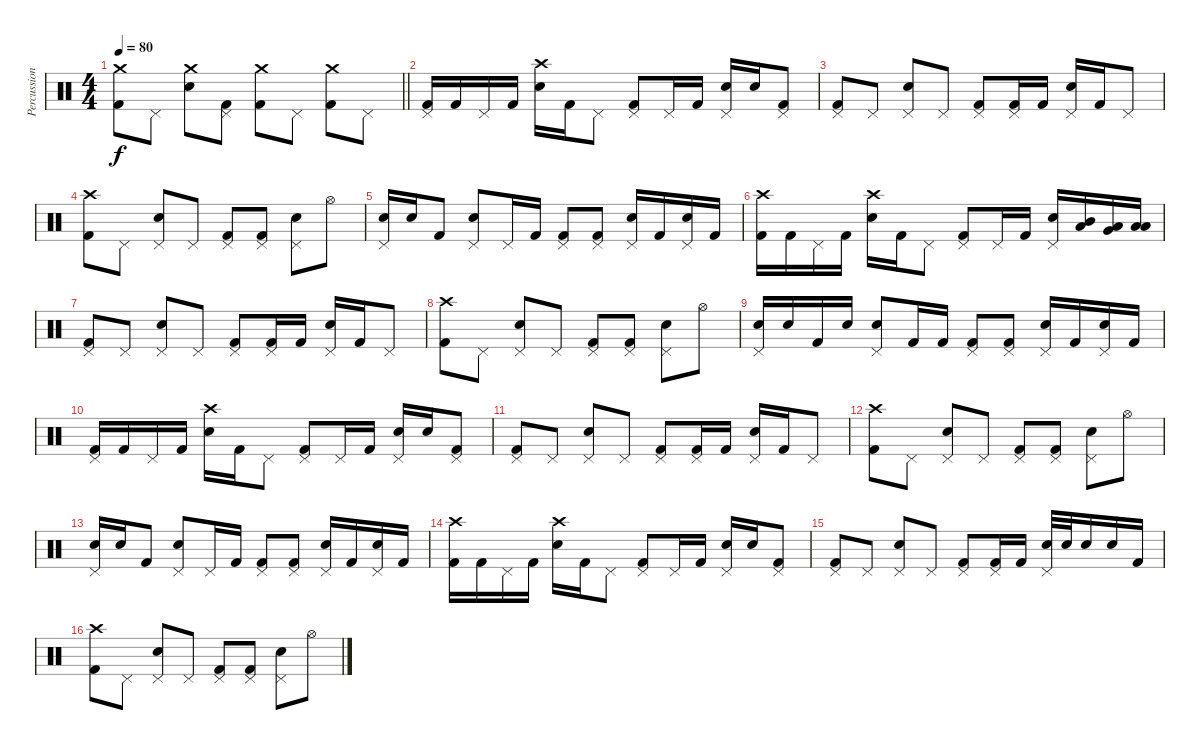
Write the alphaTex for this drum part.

\track ("Percussion" "Percussion") {instrument percussion}
\staff {score}
\articulation defaults
\ts (4 4)
\tempo 80
\clef neutral
\barLineRight lightlight
\ks c
("Crash medium (hit)" "Kick (hit) 2").8{dy f} "Pedal Hi-Hat (hit)".8 ("Crash medium (hit)" "Electric Snare (hit)").8 ("Pedal Hi-Hat (hit)" "Kick (hit) 2").8 ("Crash medium (hit)" "Kick (hit) 2").8 "Pedal Hi-Hat (hit)".8 ("Crash medium (hit)" "Kick (hit) 2").8 "Pedal Hi-Hat (hit)".8 |
("Pedal Hi-Hat (hit)" "Kick (hit) 2").16 "Kick (hit) 2".16 "Pedal Hi-Hat (hit)".16 "Kick (hit) 2".16 ("Crash high (hit)" "Electric Snare (hit)").16 "Kick (hit) 2".16 "Pedal Hi-Hat (hit)".8 ("Pedal Hi-Hat (hit)" "Kick (hit) 2").8 "Pedal Hi-Hat (hit)".16 "Kick (hit) 2".16 ("Pedal Hi-Hat (hit)" "Electric Snare (hit)").16 "Electric Snare (hit)".16 ("Pedal Hi-Hat (hit)" "Kick (hit) 2").8 |
("Pedal Hi-Hat (hit)" "Kick (hit) 2").8 "Pedal Hi-Hat (hit)".8 ("Pedal Hi-Hat (hit)" "Electric Snare (hit)").8 "Pedal Hi-Hat (hit)".8 ("Pedal Hi-Hat (hit)" "Kick (hit) 2").8 ("Pedal Hi-Hat (hit)" "Kick (hit) 2").16 "Kick (hit) 2".16 ("Pedal Hi-Hat (hit)" "Electric Snare (hit)").16 "Kick (hit) 2".16 "Pedal Hi-Hat (hit)".8 |
("Crash high (hit)" "Kick (hit) 2").8 "Pedal Hi-Hat (hit)".8 ("Pedal Hi-Hat (hit)" "Electric Snare (hit)").8 "Pedal Hi-Hat (hit)".8 ("Pedal Hi-Hat (hit)" "Kick (hit) 2").8 ("Pedal Hi-Hat (hit)" "Kick (hit) 2").8 ("Pedal Hi-Hat (hit)" "Electric Snare (hit)").8 "Hi-Hat (open)".8 |
("Pedal Hi-Hat (hit)" "Electric Snare (hit)").16 "Electric Snare (hit)".16 "Kick (hit) 2".8 ("Pedal Hi-Hat (hit)" "Electric Snare (hit)").8 "Pedal Hi-Hat (hit)".16 "Kick (hit) 2".16 ("Pedal Hi-Hat (hit)" "Kick (hit) 2").8 ("Pedal Hi-Hat (hit)" "Kick (hit) 2").8 ("Pedal Hi-Hat (hit)" "Electric Snare (hit)").16 "Kick (hit) 2".16 ("Pedal Hi-Hat (hit)" "Electric Snare (hit)").16 "Kick (hit) 2".16 |
("Crash high (hit)" "Kick (hit) 2").16 "Kick (hit) 2".16 "Pedal Hi-Hat (hit)".16 "Kick (hit) 2".16 ("Crash high (hit)" "Electric Snare (hit)").16 "Kick (hit) 2".16 "Pedal Hi-Hat (hit)".8 ("Pedal Hi-Hat (hit)" "Kick (hit) 2").8 "Pedal Hi-Hat (hit)".16 "Kick (hit) 2".16 ("Pedal Hi-Hat (hit)" "Electric Snare (hit)").16 ("Mid Tom (hit)" "Low Tom (hit)").16 ("Low Tom (hit)" "Very Low Tom (hit)").16 ("Low Tom (hit)" "Low Floor Tom (hit)").16 |
("Pedal Hi-Hat (hit)" "Kick (hit) 2").8 "Pedal Hi-Hat (hit)".8 ("Pedal Hi-Hat (hit)" "Electric Snare (hit)").8 "Pedal Hi-Hat (hit)".8 ("Pedal Hi-Hat (hit)" "Kick (hit) 2").8 ("Pedal Hi-Hat (hit)" "Kick (hit) 2").16 "Kick (hit) 2".16 ("Pedal Hi-Hat (hit)" "Electric Snare (hit)").16 "Kick (hit) 2".16 "Pedal Hi-Hat (hit)".8 |
("Crash high (hit)" "Kick (hit) 2").8 "Pedal Hi-Hat (hit)".8 ("Pedal Hi-Hat (hit)" "Electric Snare (hit)").8 "Pedal Hi-Hat (hit)".8 ("Pedal Hi-Hat (hit)" "Kick (hit) 2").8 ("Pedal Hi-Hat (hit)" "Kick (hit) 2").8 ("Pedal Hi-Hat (hit)" "Electric Snare (hit)").8 "Hi-Hat (open)".8 |
("Pedal Hi-Hat (hit)" "Electric Snare (hit)").16 "Electric Snare (hit)".16 "Kick (hit) 2".16 "Electric Snare (hit)".16 ("Pedal Hi-Hat (hit)" "Electric Snare (hit)").8 "Kick (hit) 2".16 "Kick (hit) 2".16 ("Pedal Hi-Hat (hit)" "Kick (hit) 2").8 ("Pedal Hi-Hat (hit)" "Kick (hit) 2").8 ("Pedal Hi-Hat (hit)" "Electric Snare (hit)").16 "Kick (hit) 2".16 ("Pedal Hi-Hat (hit)" "Electric Snare (hit)").16 "Kick (hit) 2".16 |
("Pedal Hi-Hat (hit)" "Kick (hit) 2").16 "Kick (hit) 2".16 "Pedal Hi-Hat (hit)".16 "Kick (hit) 2".16 ("Crash high (hit)" "Electric Snare (hit)").16 "Kick (hit) 2".16 "Pedal Hi-Hat (hit)".8 ("Pedal Hi-Hat (hit)" "Kick (hit) 2").8 "Pedal Hi-Hat (hit)".16 "Kick (hit) 2".16 ("Pedal Hi-Hat (hit)" "Electric Snare (hit)").16 "Electric Snare (hit)".16 ("Pedal Hi-Hat (hit)" "Kick (hit) 2").8 |
("Pedal Hi-Hat (hit)" "Kick (hit) 2").8 "Pedal Hi-Hat (hit)".8 ("Pedal Hi-Hat (hit)" "Electric Snare (hit)").8 "Pedal Hi-Hat (hit)".8 ("Pedal Hi-Hat (hit)" "Kick (hit) 2").8 ("Pedal Hi-Hat (hit)" "Kick (hit) 2").16 "Kick (hit) 2".16 ("Pedal Hi-Hat (hit)" "Electric Snare (hit)").16 "Kick (hit) 2".16 "Pedal Hi-Hat (hit)".8 |
("Crash high (hit)" "Kick (hit) 2").8 "Pedal Hi-Hat (hit)".8 ("Pedal Hi-Hat (hit)" "Electric Snare (hit)").8 "Pedal Hi-Hat (hit)".8 ("Pedal Hi-Hat (hit)" "Kick (hit) 2").8 ("Pedal Hi-Hat (hit)" "Kick (hit) 2").8 ("Pedal Hi-Hat (hit)" "Electric Snare (hit)").8 "Hi-Hat (open)".8 |
("Pedal Hi-Hat (hit)" "Electric Snare (hit)").16 "Electric Snare (hit)".16 "Kick (hit) 2".8 ("Pedal Hi-Hat (hit)" "Electric Snare (hit)").8 "Pedal Hi-Hat (hit)".16 "Kick (hit) 2".16 ("Pedal Hi-Hat (hit)" "Kick (hit) 2").8 ("Pedal Hi-Hat (hit)" "Kick (hit) 2").8 ("Pedal Hi-Hat (hit)" "Electric Snare (hit)").16 "Kick (hit) 2".16 ("Pedal Hi-Hat (hit)" "Electric Snare (hit)").16 "Kick (hit) 2".16 |
("Crash high (hit)" "Kick (hit) 2").16 "Kick (hit) 2".16 "Pedal Hi-Hat (hit)".16 "Kick (hit) 2".16 ("Crash high (hit)" "Electric Snare (hit)").16 "Kick (hit) 2".16 "Pedal Hi-Hat (hit)".8 ("Pedal Hi-Hat (hit)" "Kick (hit) 2").8 "Pedal Hi-Hat (hit)".16 "Kick (hit) 2".16 ("Pedal Hi-Hat (hit)" "Electric Snare (hit)").16 "Electric Snare (hit)".16 ("Pedal Hi-Hat (hit)" "Kick (hit) 2").8 |
("Pedal Hi-Hat (hit)" "Kick (hit) 2").8 "Pedal Hi-Hat (hit)".8 ("Pedal Hi-Hat (hit)" "Electric Snare (hit)").8 "Pedal Hi-Hat (hit)".8 ("Pedal Hi-Hat (hit)" "Kick (hit) 2").8 ("Pedal Hi-Hat (hit)" "Kick (hit) 2").16 "Kick (hit) 2".16 ("Pedal Hi-Hat (hit)" "Electric Snare (hit)").32 "Electric Snare (hit)".32 "Electric Snare (hit)".16 "Electric Snare (hit)".16 "Kick (hit) 2".16 |
("Crash high (hit)" "Kick (hit) 2").8 "Pedal Hi-Hat (hit)".8 ("Pedal Hi-Hat (hit)" "Electric Snare (hit)").8 "Pedal Hi-Hat (hit)".8 ("Pedal Hi-Hat (hit)" "Kick (hit) 2").8 ("Pedal Hi-Hat (hit)" "Kick (hit) 2").8 ("Pedal Hi-Hat (hit)" "Electric Snare (hit)").8 "Hi-Hat (open)".8
